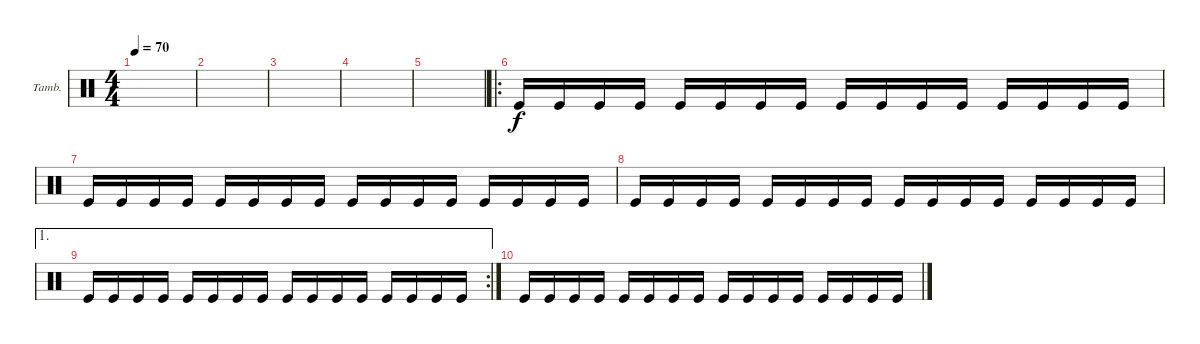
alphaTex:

\defaultSystemsLayout 4
\bracketExtendMode groupsimilarinstruments
\firstSystemTrackNameOrientation horizontal
\otherSystemsTrackNameOrientation horizontal
\track ("Tambourine" "Tamb.") {instrument percussion}
\staff {score}
\articulation defaults
\ts (4 4)
\tempo 70
\clef neutral
\scale
0.474178
\ks c
|
\scale
0.262911 |
\scale
0.262911 |
\scale
0.311111 |
\scale
0.311111 |
\ro
\scale
0.377778 "Kick (hit)".16 "Kick (hit)".16 "Kick (hit)".16 "Kick (hit)".16 "Kick (hit)".16 "Kick (hit)".16 "Kick (hit)".16 "Kick (hit)".16 "Kick (hit)".16 "Kick (hit)".16 "Kick (hit)".16 "Kick (hit)".16 "Kick (hit)".16 "Kick (hit)".16 "Kick (hit)".16 "Kick (hit)".16 |
\scale
0.321839 "Kick (hit)".16 "Kick (hit)".16 "Kick (hit)".16 "Kick (hit)".16 "Kick (hit)".16 "Kick (hit)".16 "Kick (hit)".16 "Kick (hit)".16 "Kick (hit)".16 "Kick (hit)".16 "Kick (hit)".16 "Kick (hit)".16 "Kick (hit)".16 "Kick (hit)".16 "Kick (hit)".16 "Kick (hit)".16 |
\scale
0.321839 "Kick (hit)".16 "Kick (hit)".16 "Kick (hit)".16 "Kick (hit)".16 "Kick (hit)".16 "Kick (hit)".16 "Kick (hit)".16 "Kick (hit)".16 "Kick (hit)".16 "Kick (hit)".16 "Kick (hit)".16 "Kick (hit)".16 "Kick (hit)".16 "Kick (hit)".16 "Kick (hit)".16 "Kick (hit)".16 |
\ae 1
\rc 2
\scale
0.356322 "Kick (hit)".16 "Kick (hit)".16 "Kick (hit)".16 "Kick (hit)".16 "Kick (hit)".16 "Kick (hit)".16 "Kick (hit)".16 "Kick (hit)".16 "Kick (hit)".16 "Kick (hit)".16 "Kick (hit)".16 "Kick (hit)".16 "Kick (hit)".16 "Kick (hit)".16 "Kick (hit)".16 "Kick (hit)".16 |
"Kick (hit)".16 "Kick (hit)".16 "Kick (hit)".16 "Kick (hit)".16 "Kick (hit)".16 "Kick (hit)".16 "Kick (hit)".16 "Kick (hit)".16 "Kick (hit)".16 "Kick (hit)".16 "Kick (hit)".16 "Kick (hit)".16 "Kick (hit)".16 "Kick (hit)".16 "Kick (hit)".16 "Kick (hit)".16
